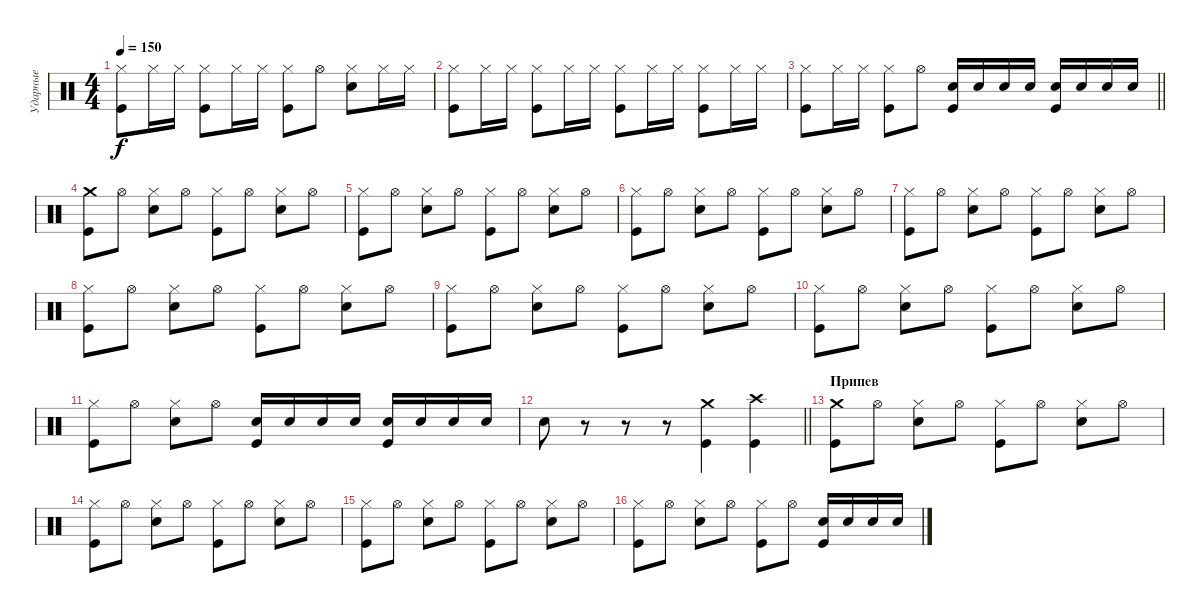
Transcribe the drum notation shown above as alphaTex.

\track ("Ударные" "Ударные") {instrument percussion}
\staff {score}
\articulation defaults
\ts (4 4)
\tempo 150
\clef neutral
\ks c
("Hi-Hat (closed)" "Kick (hit)").8{dy f} "Hi-Hat (closed)".16 "Hi-Hat (closed)".16 ("Hi-Hat (closed)" "Kick (hit)").8 "Hi-Hat (closed)".16 "Hi-Hat (closed)".16 ("Hi-Hat (closed)" "Kick (hit)").8 "Hi-Hat (open)".8 ("Hi-Hat (closed)" "Electric Snare (hit)").8 "Hi-Hat (closed)".16 "Hi-Hat (closed)".16 |
("Hi-Hat (closed)" "Kick (hit)").8 "Hi-Hat (closed)".16 "Hi-Hat (closed)".16 ("Hi-Hat (closed)" "Kick (hit)").8 "Hi-Hat (closed)".16 "Hi-Hat (closed)".16 ("Hi-Hat (closed)" "Kick (hit)").8 "Hi-Hat (closed)".16 "Hi-Hat (closed)".16 ("Hi-Hat (closed)" "Kick (hit)").8 "Hi-Hat (closed)".16 "Hi-Hat (closed)".16 |
\barLineRight lightlight
("Hi-Hat (closed)" "Kick (hit)").8 "Hi-Hat (closed)".16 "Hi-Hat (closed)".16 ("Hi-Hat (closed)" "Kick (hit)").8 "Hi-Hat (open)".8 ("Electric Snare (hit)" "Kick (hit)").16 "Electric Snare (hit)".16 "Electric Snare (hit)".16 "Electric Snare (hit)".16 ("Electric Snare (hit)" "Kick (hit)").16 "Electric Snare (hit)".16 "Electric Snare (hit)".16 "Electric Snare (hit)".16 |
\section ("" " ")
("Crash medium (hit)" "Kick (hit)").8 "Hi-Hat (open)".8 ("Hi-Hat (closed)" "Electric Snare (hit)").8 "Hi-Hat (open)".8 ("Hi-Hat (closed)" "Kick (hit)").8 "Hi-Hat (open)".8 ("Hi-Hat (closed)" "Electric Snare (hit)").8 "Hi-Hat (open)".8 |
("Hi-Hat (closed)" "Kick (hit)").8 "Hi-Hat (open)".8 ("Hi-Hat (closed)" "Electric Snare (hit)").8 "Hi-Hat (open)".8 ("Hi-Hat (closed)" "Kick (hit)").8 "Hi-Hat (open)".8 ("Hi-Hat (closed)" "Electric Snare (hit)").8 "Hi-Hat (open)".8 |
("Hi-Hat (closed)" "Kick (hit)").8 "Hi-Hat (open)".8 ("Hi-Hat (closed)" "Electric Snare (hit)").8 "Hi-Hat (open)".8 ("Hi-Hat (closed)" "Kick (hit)").8 "Hi-Hat (open)".8 ("Hi-Hat (closed)" "Electric Snare (hit)").8 "Hi-Hat (open)".8 |
("Hi-Hat (closed)" "Kick (hit)").8 "Hi-Hat (open)".8 ("Hi-Hat (closed)" "Electric Snare (hit)").8 "Hi-Hat (open)".8 ("Hi-Hat (closed)" "Kick (hit)").8 "Hi-Hat (open)".8 ("Hi-Hat (closed)" "Electric Snare (hit)").8 "Hi-Hat (open)".8 |
("Hi-Hat (closed)" "Kick (hit)").8 "Hi-Hat (open)".8 ("Hi-Hat (closed)" "Electric Snare (hit)").8 "Hi-Hat (open)".8 ("Hi-Hat (closed)" "Kick (hit)").8 "Hi-Hat (open)".8 ("Hi-Hat (closed)" "Electric Snare (hit)").8 "Hi-Hat (open)".8 |
("Hi-Hat (closed)" "Kick (hit)").8 "Hi-Hat (open)".8 ("Hi-Hat (closed)" "Electric Snare (hit)").8 "Hi-Hat (open)".8 ("Hi-Hat (closed)" "Kick (hit)").8 "Hi-Hat (open)".8 ("Hi-Hat (closed)" "Electric Snare (hit)").8 "Hi-Hat (open)".8 |
("Hi-Hat (closed)" "Kick (hit)").8 "Hi-Hat (open)".8 ("Hi-Hat (closed)" "Electric Snare (hit)").8 "Hi-Hat (open)".8 ("Hi-Hat (closed)" "Kick (hit)").8 "Hi-Hat (open)".8 ("Hi-Hat (closed)" "Electric Snare (hit)").8 "Hi-Hat (open)".8 |
("Hi-Hat (closed)" "Kick (hit)").8 "Hi-Hat (open)".8 ("Hi-Hat (closed)" "Electric Snare (hit)").8 "Hi-Hat (open)".8 ("Electric Snare (hit)" "Kick (hit)").16 "Electric Snare (hit)".16 "Electric Snare (hit)".16 "Electric Snare (hit)".16 ("Electric Snare (hit)" "Kick (hit)").16 "Electric Snare (hit)".16 "Electric Snare (hit)".16 "Electric Snare (hit)".16 |
\barLineRight lightlight "Electric Snare (hit)".8
r.8 r.8 r.8 ("Crash medium (hit)" "Kick (hit)").4 ("Crash high (hit)" "Kick (hit)").4 |
\section ("" "Припев")
("Crash medium (hit)" "Kick (hit)").8 "Hi-Hat (open)".8 ("Hi-Hat (closed)" "Electric Snare (hit)").8 "Hi-Hat (open)".8 ("Hi-Hat (closed)" "Kick (hit)").8 "Hi-Hat (open)".8 ("Hi-Hat (closed)" "Electric Snare (hit)").8 "Hi-Hat (open)".8 |
("Hi-Hat (closed)" "Kick (hit)").8 "Hi-Hat (open)".8 ("Hi-Hat (closed)" "Electric Snare (hit)").8 "Hi-Hat (open)".8 ("Hi-Hat (closed)" "Kick (hit)").8 "Hi-Hat (open)".8 ("Hi-Hat (closed)" "Electric Snare (hit)").8 "Hi-Hat (open)".8 |
("Hi-Hat (closed)" "Kick (hit)").8 "Hi-Hat (open)".8 ("Hi-Hat (closed)" "Electric Snare (hit)").8 "Hi-Hat (open)".8 ("Hi-Hat (closed)" "Kick (hit)").8 "Hi-Hat (open)".8 ("Hi-Hat (closed)" "Electric Snare (hit)").8 "Hi-Hat (open)".8 |
("Hi-Hat (closed)" "Kick (hit)").8 "Hi-Hat (open)".8 ("Hi-Hat (closed)" "Electric Snare (hit)").8 "Hi-Hat (open)".8 ("Hi-Hat (closed)" "Kick (hit)").8 "Hi-Hat (open)".8 ("Electric Snare (hit)" "Kick (hit)").16 "Electric Snare (hit)".16 "Electric Snare (hit)".16 "Electric Snare (hit)".16
